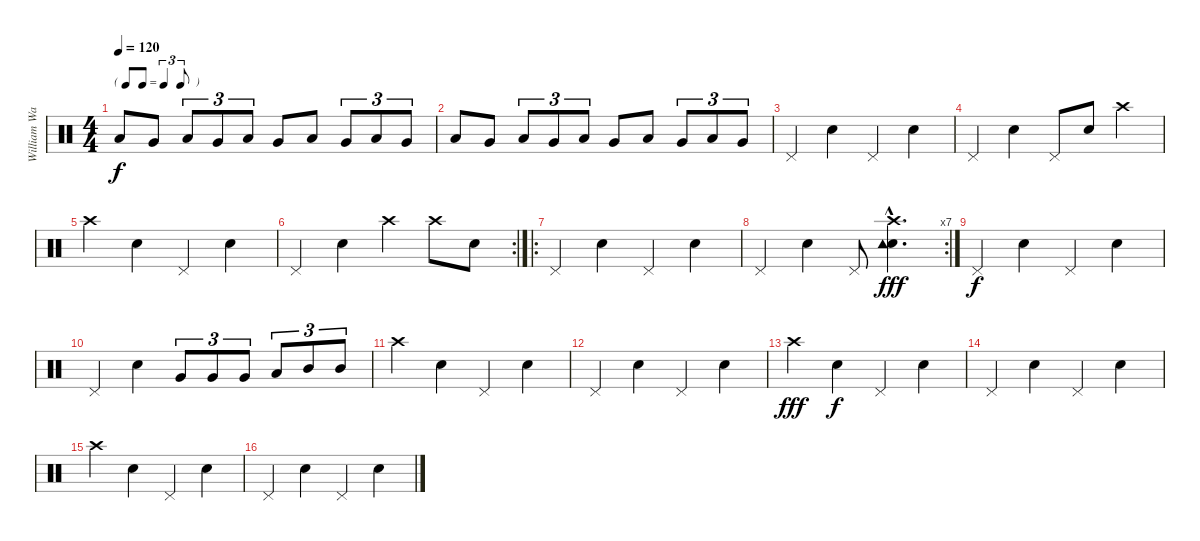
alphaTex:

\track ("William Ward" "William Wa") {instrument percussion}
\staff {score}
\articulation defaults
\ts (4 4)
\tf triplet8th
\tempo 120
\clef neutral
\ks c "Low Tom (hit)".8{dy f} "Very Low Tom (hit)".8 "Low Tom (hit)".8{tu (3 2)} "Very Low Tom (hit)".8{tu (3 2)} "Low Tom (hit)".8{tu (3 2)} "Very Low Tom (hit)".8 "Low Tom (hit)".8 "Very Low Tom (hit)".8{tu (3 2)} "Low Tom (hit)".8{tu (3 2)} "Very Low Tom (hit)".8{tu (3 2)}
|
"Low Tom (hit)".8 "Very Low Tom (hit)".8 "Low Tom (hit)".8{tu (3 2)} "Very Low Tom (hit)".8{tu (3 2)} "Low Tom (hit)".8{tu (3 2)} "Very Low Tom (hit)".8 "Low Tom (hit)".8 "Very Low Tom (hit)".8{tu (3 2)} "Low Tom (hit)".8{tu (3 2)} "Very Low Tom (hit)".8{tu (3 2)} |
"Pedal Hi-Hat (hit)".4 "Snare (hit) 2".4 "Pedal Hi-Hat (hit)".4 "Snare (hit) 2".4 |
"Pedal Hi-Hat (hit)".4 "Snare (hit) 2".4 "Pedal Hi-Hat (hit)".8 "Snare (hit) 2".8 "Crash high (hit)".4 |
"Crash high (hit)".4 "Snare (hit) 2".4 "Pedal Hi-Hat (hit)".4 "Snare (hit) 2".4 |
\rc 2 "Pedal Hi-Hat (hit)".4 "Snare (hit) 2".4 "Crash high (hit)".4 "Crash high (hit)".8 "Snare (hit) 2".8
|
\ro "Pedal Hi-Hat (hit)".4 "Snare (hit) 2".4 "Pedal Hi-Hat (hit)".4 "Snare (hit) 2".4
|
\rc 7 "Pedal Hi-Hat (hit)".4 "Snare (hit) 2".4 "Pedal Hi-Hat (hit)".8
("Snare (hit) 2"{hac} "Crash high (hit)"{hac} "Tambourine (hit)"{hac}).4{d dy fff} |
"Pedal Hi-Hat (hit)".4{dy f} "Snare (hit) 2".4 "Pedal Hi-Hat (hit)".4 "Snare (hit) 2".4 |
"Pedal Hi-Hat (hit)".4 "Snare (hit) 2".4 "Very Low Tom (hit)".8{tu (3 2)} "Very Low Tom (hit)".8{tu (3 2)} "Very Low Tom (hit)".8{tu (3 2)} "Low Tom (hit)".8{tu (3 2)} "Mid Tom (hit)".8{tu (3 2)} "Mid Tom (hit)".8{tu (3 2)} |
"Crash high (hit)".4 "Snare (hit) 2".4 "Pedal Hi-Hat (hit)".4 "Snare (hit) 2".4 |
"Pedal Hi-Hat (hit)".4 "Snare (hit) 2".4 "Pedal Hi-Hat (hit)".4 "Snare (hit) 2".4 |
"Crash high (hit)".4{dy fff} "Snare (hit) 2".4{dy f} "Pedal Hi-Hat (hit)".4 "Snare (hit) 2".4 |
"Pedal Hi-Hat (hit)".4 "Snare (hit) 2".4 "Pedal Hi-Hat (hit)".4 "Snare (hit) 2".4 |
"Crash high (hit)".4 "Snare (hit) 2".4 "Pedal Hi-Hat (hit)".4 "Snare (hit) 2".4 |
"Pedal Hi-Hat (hit)".4 "Snare (hit) 2".4 "Pedal Hi-Hat (hit)".4 "Snare (hit) 2".4
